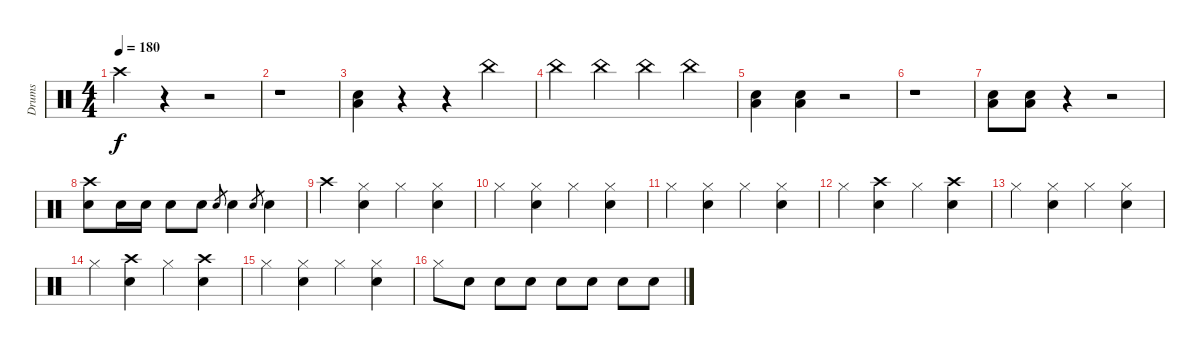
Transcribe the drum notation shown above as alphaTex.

\track ("Drums" "Drums") {instrument percussion}
\staff {score}
\articulation defaults
\ts (4 4)
\tempo 180
\clef neutral
\ks c "Crash high (hit)".4{dy f}
r.4 r.2 |
r.1 |
("Snare (hit) 2" "Low Floor Tom (hit)").4 r.4 r.4 "China (hit)".4 |
"China (hit)".4 "China (hit)".4 "China (hit)".4 "China (hit)".4 |
("Snare (hit) 2" "Low Floor Tom (hit)").4 ("Snare (hit) 2" "Low Floor Tom (hit)").4 r.2 |
r.1 |
("Snare (hit) 2" "Low Floor Tom (hit)").8 ("Snare (hit) 2" "Low Floor Tom (hit)").8 r.4 r.2 |
("Crash high (hit)" "Snare (hit) 2").8 "Snare (hit) 2".16 "Snare (hit) 2".16 "Snare (hit) 2".8 "Snare (hit) 2".8 "Snare (hit) 2".8{gr} "Snare (hit) 2".4 "Snare (hit) 2".8{gr} "Snare (hit) 2".4 |
"Crash high (hit)".4 ("Hi-Hat (closed)" "Snare (hit) 2").4 "Hi-Hat (closed)".4 ("Hi-Hat (closed)" "Snare (hit) 2").4 |
"Hi-Hat (closed)".4 ("Hi-Hat (closed)" "Snare (hit) 2").4 "Hi-Hat (closed)".4 ("Hi-Hat (closed)" "Snare (hit) 2").4 |
"Hi-Hat (closed)".4 ("Hi-Hat (closed)" "Snare (hit) 2").4 "Hi-Hat (closed)".4 ("Hi-Hat (closed)" "Snare (hit) 2").4 |
"Hi-Hat (closed)".4 ("Crash high (hit)" "Snare (hit) 2").4 "Hi-Hat (closed)".4 ("Crash high (hit)" "Snare (hit) 2").4 |
"Hi-Hat (closed)".4 ("Hi-Hat (closed)" "Snare (hit) 2").4 "Hi-Hat (closed)".4 ("Hi-Hat (closed)" "Snare (hit) 2").4 |
"Hi-Hat (closed)".4 ("Crash high (hit)" "Snare (hit) 2").4 "Hi-Hat (closed)".4 ("Crash high (hit)" "Snare (hit) 2").4 |
"Hi-Hat (closed)".4 ("Hi-Hat (closed)" "Snare (hit) 2").4 "Hi-Hat (closed)".4 ("Hi-Hat (closed)" "Snare (hit) 2").4 |
"Hi-Hat (closed)".8 "Snare (hit) 2".8 "Snare (hit) 2".8 "Snare (hit) 2".8 "Snare (hit) 2".8 "Snare (hit) 2".8 "Snare (hit) 2".8 "Snare (hit) 2".8
